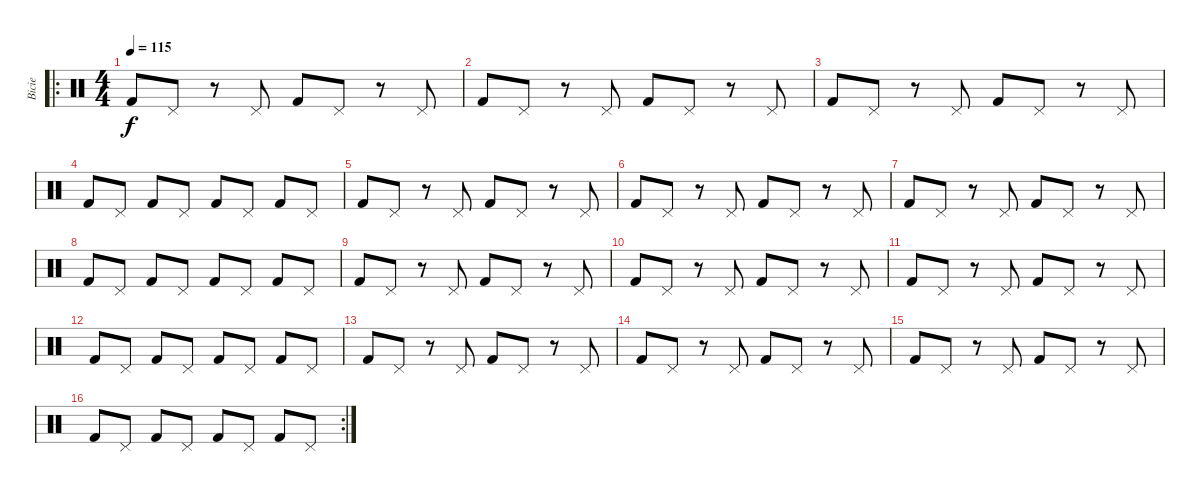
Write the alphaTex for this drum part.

\track ("Bicie" "Bicie") {instrument percussion}
\staff {score}
\articulation defaults
\ro
\ts (4 4)
\tempo 115
\clef neutral
\ks c "Kick (hit) 2".8{dy f} "Pedal Hi-Hat (hit)".8
r.8 "Pedal Hi-Hat (hit)".8 "Kick (hit) 2".8 "Pedal Hi-Hat (hit)".8 r.8 "Pedal Hi-Hat (hit)".8 |
"Kick (hit) 2".8 "Pedal Hi-Hat (hit)".8 r.8 "Pedal Hi-Hat (hit)".8 "Kick (hit) 2".8 "Pedal Hi-Hat (hit)".8 r.8 "Pedal Hi-Hat (hit)".8 |
"Kick (hit) 2".8 "Pedal Hi-Hat (hit)".8 r.8 "Pedal Hi-Hat (hit)".8 "Kick (hit) 2".8 "Pedal Hi-Hat (hit)".8 r.8 "Pedal Hi-Hat (hit)".8 |
"Kick (hit) 2".8 "Pedal Hi-Hat (hit)".8 "Kick (hit) 2".8 "Pedal Hi-Hat (hit)".8 "Kick (hit) 2".8 "Pedal Hi-Hat (hit)".8 "Kick (hit) 2".8 "Pedal Hi-Hat (hit)".8 |
"Kick (hit) 2".8 "Pedal Hi-Hat (hit)".8 r.8 "Pedal Hi-Hat (hit)".8 "Kick (hit) 2".8 "Pedal Hi-Hat (hit)".8 r.8 "Pedal Hi-Hat (hit)".8 |
"Kick (hit) 2".8 "Pedal Hi-Hat (hit)".8 r.8 "Pedal Hi-Hat (hit)".8 "Kick (hit) 2".8 "Pedal Hi-Hat (hit)".8 r.8 "Pedal Hi-Hat (hit)".8 |
"Kick (hit) 2".8 "Pedal Hi-Hat (hit)".8 r.8 "Pedal Hi-Hat (hit)".8 "Kick (hit) 2".8 "Pedal Hi-Hat (hit)".8 r.8 "Pedal Hi-Hat (hit)".8 |
"Kick (hit) 2".8 "Pedal Hi-Hat (hit)".8 "Kick (hit) 2".8 "Pedal Hi-Hat (hit)".8 "Kick (hit) 2".8 "Pedal Hi-Hat (hit)".8 "Kick (hit) 2".8 "Pedal Hi-Hat (hit)".8 |
"Kick (hit) 2".8 "Pedal Hi-Hat (hit)".8 r.8 "Pedal Hi-Hat (hit)".8 "Kick (hit) 2".8 "Pedal Hi-Hat (hit)".8 r.8 "Pedal Hi-Hat (hit)".8 |
"Kick (hit) 2".8 "Pedal Hi-Hat (hit)".8 r.8 "Pedal Hi-Hat (hit)".8 "Kick (hit) 2".8 "Pedal Hi-Hat (hit)".8 r.8 "Pedal Hi-Hat (hit)".8 |
"Kick (hit) 2".8 "Pedal Hi-Hat (hit)".8 r.8 "Pedal Hi-Hat (hit)".8 "Kick (hit) 2".8 "Pedal Hi-Hat (hit)".8 r.8 "Pedal Hi-Hat (hit)".8 |
"Kick (hit) 2".8 "Pedal Hi-Hat (hit)".8 "Kick (hit) 2".8 "Pedal Hi-Hat (hit)".8 "Kick (hit) 2".8 "Pedal Hi-Hat (hit)".8 "Kick (hit) 2".8 "Pedal Hi-Hat (hit)".8 |
"Kick (hit) 2".8 "Pedal Hi-Hat (hit)".8 r.8 "Pedal Hi-Hat (hit)".8 "Kick (hit) 2".8 "Pedal Hi-Hat (hit)".8 r.8 "Pedal Hi-Hat (hit)".8 |
"Kick (hit) 2".8 "Pedal Hi-Hat (hit)".8 r.8 "Pedal Hi-Hat (hit)".8 "Kick (hit) 2".8 "Pedal Hi-Hat (hit)".8 r.8 "Pedal Hi-Hat (hit)".8 |
"Kick (hit) 2".8 "Pedal Hi-Hat (hit)".8 r.8 "Pedal Hi-Hat (hit)".8 "Kick (hit) 2".8 "Pedal Hi-Hat (hit)".8 r.8 "Pedal Hi-Hat (hit)".8 |
\rc 2 "Kick (hit) 2".8 "Pedal Hi-Hat (hit)".8 "Kick (hit) 2".8 "Pedal Hi-Hat (hit)".8 "Kick (hit) 2".8 "Pedal Hi-Hat (hit)".8 "Kick (hit) 2".8 "Pedal Hi-Hat (hit)".8
